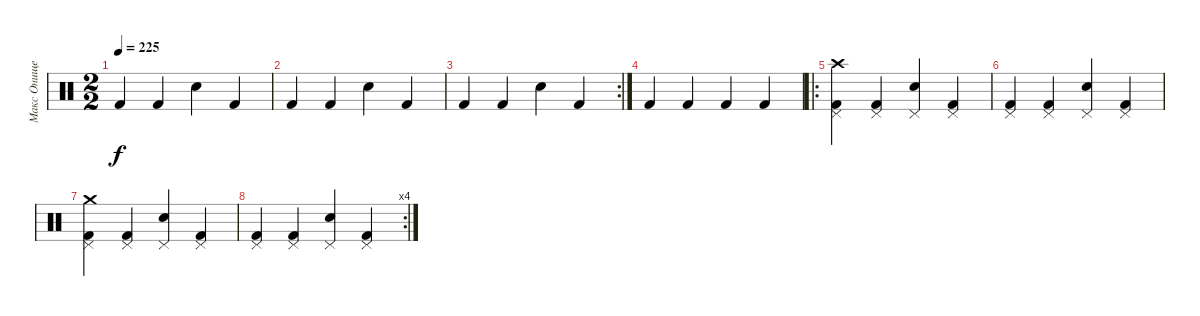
\track ("Макс Онищенко" "Макс Онище") {instrument percussion}
\staff {score}
\articulation defaults
\ts (2 2)
\tempo 225
\clef neutral
\ks c "Kick (hit) 2".4{dy f} "Kick (hit) 2".4 "Snare (hit) 2".4 "Kick (hit) 2".4
|
"Kick (hit) 2".4 "Kick (hit) 2".4 "Snare (hit) 2".4 "Kick (hit) 2".4 |
\rc 2 "Kick (hit) 2".4 "Kick (hit) 2".4 "Snare (hit) 2".4 "Kick (hit) 2".4
|
"Kick (hit) 2".4 "Kick (hit) 2".4 "Kick (hit) 2".4 "Kick (hit) 2".4 |
\ro
("Pedal Hi-Hat (hit)" "Kick (hit) 2" "Crash high (hit)").4 ("Pedal Hi-Hat (hit)" "Kick (hit) 2").4 ("Pedal Hi-Hat (hit)" "Snare (hit) 2").4 ("Pedal Hi-Hat (hit)" "Kick (hit) 2").4 |
("Pedal Hi-Hat (hit)" "Kick (hit) 2").4 ("Pedal Hi-Hat (hit)" "Kick (hit) 2").4 ("Pedal Hi-Hat (hit)" "Snare (hit) 2").4 ("Pedal Hi-Hat (hit)" "Kick (hit) 2").4 |
("Pedal Hi-Hat (hit)" "Kick (hit) 2" "Crash medium (hit)").4 ("Pedal Hi-Hat (hit)" "Kick (hit) 2").4 ("Pedal Hi-Hat (hit)" "Snare (hit) 2").4 ("Pedal Hi-Hat (hit)" "Kick (hit) 2").4 |
\rc 4
("Pedal Hi-Hat (hit)" "Kick (hit) 2").4 ("Pedal Hi-Hat (hit)" "Kick (hit) 2").4 ("Pedal Hi-Hat (hit)" "Snare (hit) 2").4 ("Pedal Hi-Hat (hit)" "Kick (hit) 2").4
